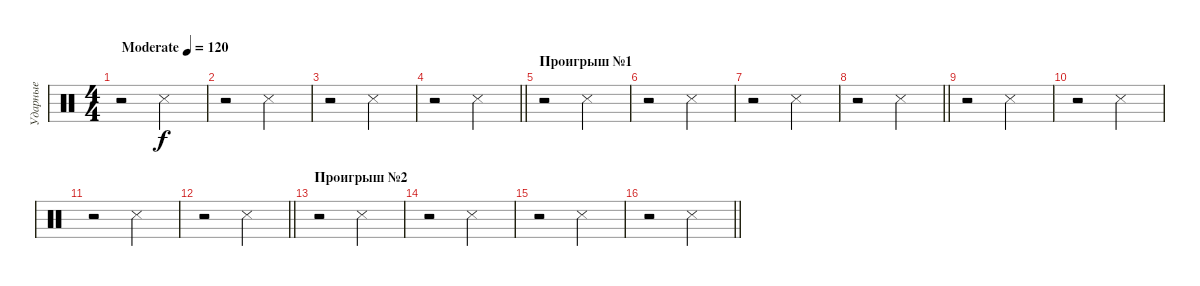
\track ("Ударные" "Ударные") {instrument percussion}
\staff {score}
\articulation defaults
\ts (4 4)
\tempo (120 "Moderate")
\clef neutral
\ks c
r.2{dy f} "Snare (side stick) 3".2 |
r.2 "Snare (side stick) 3".2 |
r.2 "Snare (side stick) 3".2 |
\barLineRight lightlight
r.2 "Snare (side stick) 3".2 |
\section ("" "Проигрыш №1")
r.2 "Snare (side stick) 3".2 |
r.2 "Snare (side stick) 3".2 |
r.2 "Snare (side stick) 3".2 |
\barLineRight lightlight
r.2 "Snare (side stick) 3".2 |
r.2 "Snare (side stick) 3".2 |
r.2 "Snare (side stick) 3".2 |
r.2 "Snare (side stick) 3".2 |
\barLineRight lightlight
r.2 "Snare (side stick) 3".2 |
\section ("" "Проигрыш №2")
r.2 "Snare (side stick) 3".2 |
r.2 "Snare (side stick) 3".2 |
r.2 "Snare (side stick) 3".2 |
\barLineRight lightlight
r.2 "Snare (side stick) 3".2
